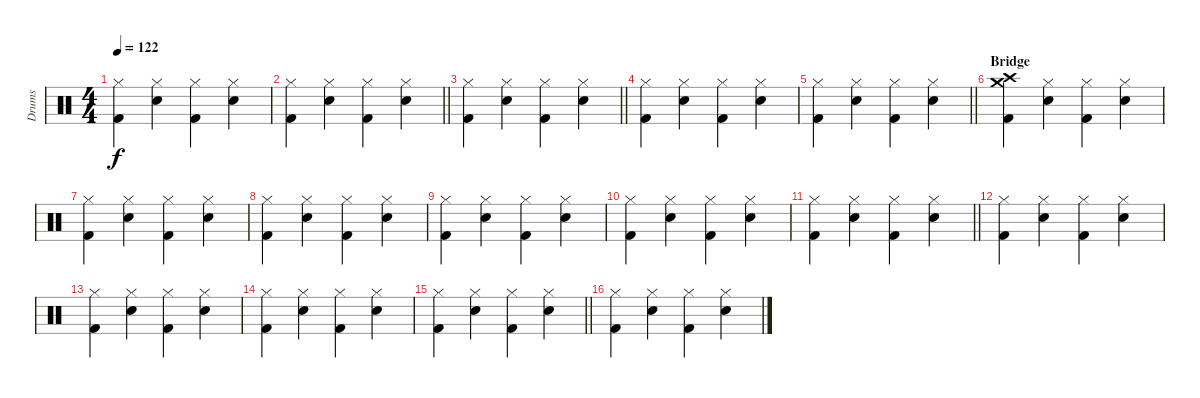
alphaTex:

\track ("Drums" "Drums") {instrument percussion}
\staff {score}
\articulation defaults
\ts (4 4)
\tempo 122
\clef neutral
\ks c
("Hi-Hat (closed)" "Kick (hit) 2").4{dy f} ("Hi-Hat (closed)" "Snare (hit) 2").4 ("Hi-Hat (closed)" "Kick (hit) 2").4 ("Hi-Hat (closed)" "Snare (hit) 2").4 |
\barLineRight lightlight
("Hi-Hat (closed)" "Kick (hit) 2").4 ("Hi-Hat (closed)" "Snare (hit) 2").4 ("Hi-Hat (closed)" "Kick (hit) 2").4 ("Hi-Hat (closed)" "Snare (hit) 2").4 |
\barLineRight lightlight
("Hi-Hat (closed)" "Kick (hit) 2").4 ("Hi-Hat (closed)" "Snare (hit) 2").4 ("Hi-Hat (closed)" "Kick (hit) 2").4 ("Hi-Hat (closed)" "Snare (hit) 2").4 |
("Hi-Hat (closed)" "Kick (hit) 2").4 ("Hi-Hat (closed)" "Snare (hit) 2").4 ("Hi-Hat (closed)" "Kick (hit) 2").4 ("Hi-Hat (closed)" "Snare (hit) 2").4 |
\barLineRight lightlight
("Hi-Hat (closed)" "Kick (hit) 2").4 ("Hi-Hat (closed)" "Snare (hit) 2").4 ("Hi-Hat (closed)" "Kick (hit) 2").4 ("Hi-Hat (closed)" "Snare (hit) 2").4 |
\section ("" "Bridge")
("Crash medium (hit)" "Crash high (hit)" "Kick (hit) 2").4 ("Hi-Hat (closed)" "Snare (hit) 2").4 ("Hi-Hat (closed)" "Kick (hit) 2").4 ("Hi-Hat (closed)" "Snare (hit) 2").4 |
("Hi-Hat (closed)" "Kick (hit) 2").4 ("Hi-Hat (closed)" "Snare (hit) 2").4 ("Hi-Hat (closed)" "Kick (hit) 2").4 ("Hi-Hat (closed)" "Snare (hit) 2").4 |
("Hi-Hat (closed)" "Kick (hit) 2").4 ("Hi-Hat (closed)" "Snare (hit) 2").4 ("Hi-Hat (closed)" "Kick (hit) 2").4 ("Hi-Hat (closed)" "Snare (hit) 2").4 |
("Hi-Hat (closed)" "Kick (hit) 2").4 ("Hi-Hat (closed)" "Snare (hit) 2").4 ("Hi-Hat (closed)" "Kick (hit) 2").4 ("Hi-Hat (closed)" "Snare (hit) 2").4 |
("Hi-Hat (closed)" "Kick (hit) 2").4 ("Hi-Hat (closed)" "Snare (hit) 2").4 ("Hi-Hat (closed)" "Kick (hit) 2").4 ("Hi-Hat (closed)" "Snare (hit) 2").4 |
\barLineRight lightlight
("Hi-Hat (closed)" "Kick (hit) 2").4 ("Hi-Hat (closed)" "Snare (hit) 2").4 ("Hi-Hat (closed)" "Kick (hit) 2").4 ("Hi-Hat (closed)" "Snare (hit) 2").4 |
("Hi-Hat (closed)" "Kick (hit) 2").4 ("Hi-Hat (closed)" "Snare (hit) 2").4 ("Hi-Hat (closed)" "Kick (hit) 2").4 ("Hi-Hat (closed)" "Snare (hit) 2").4 |
("Hi-Hat (closed)" "Kick (hit) 2").4 ("Hi-Hat (closed)" "Snare (hit) 2").4 ("Hi-Hat (closed)" "Kick (hit) 2").4 ("Hi-Hat (closed)" "Snare (hit) 2").4 |
("Hi-Hat (closed)" "Kick (hit) 2").4 ("Hi-Hat (closed)" "Snare (hit) 2").4 ("Hi-Hat (closed)" "Kick (hit) 2").4 ("Hi-Hat (closed)" "Snare (hit) 2").4 |
\barLineRight lightlight
("Hi-Hat (closed)" "Kick (hit) 2").4 ("Hi-Hat (closed)" "Snare (hit) 2").4 ("Hi-Hat (closed)" "Kick (hit) 2").4 ("Hi-Hat (closed)" "Snare (hit) 2").4 |
("Hi-Hat (closed)" "Kick (hit) 2").4 ("Hi-Hat (closed)" "Snare (hit) 2").4 ("Hi-Hat (closed)" "Kick (hit) 2").4 ("Hi-Hat (closed)" "Snare (hit) 2").4
